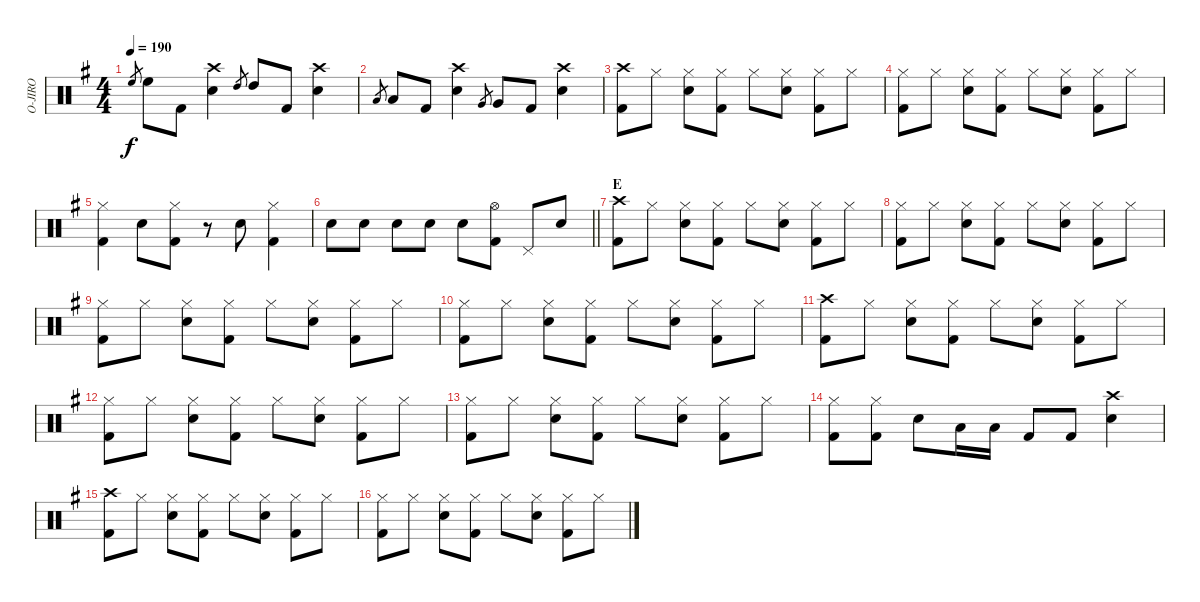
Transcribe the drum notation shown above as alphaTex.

\track ("O-JIRO" "O-JIRO") {instrument percussion}
\staff {score}
\articulation defaults
\ts (4 4)
\tempo 190
\clef neutral
\ks g "High Floor Tom (hit)".8{gr dy f} "High Floor Tom (hit)".8 "Kick (hit) 2".8
("Crash high (hit)" "Snare (hit) 2").4 "High Tom (hit)".8{gr} "High Tom (hit)".8 "Kick (hit) 2".8 ("Crash high (hit)" "Snare (hit) 2").4 |
"Low Tom (hit)".8{gr} "Low Tom (hit)".8 "Kick (hit) 2".8 ("Crash high (hit)" "Snare (hit) 2").4 "Very Low Tom (hit)".8{gr} "Very Low Tom (hit)".8 "Kick (hit) 2".8 ("Crash high (hit)" "Snare (hit) 2").4 |
("Crash high (hit)" "Kick (hit) 2").8 "Hi-Hat (closed)".8 ("Hi-Hat (closed)" "Snare (hit) 2").8 ("Hi-Hat (closed)" "Kick (hit) 2").8 "Hi-Hat (closed)".8 ("Hi-Hat (closed)" "Snare (hit) 2").8 ("Hi-Hat (closed)" "Kick (hit) 2").8 "Hi-Hat (closed)".8 |
("Hi-Hat (closed)" "Kick (hit) 2").8 "Hi-Hat (closed)".8 ("Hi-Hat (closed)" "Snare (hit) 2").8 ("Hi-Hat (closed)" "Kick (hit) 2").8 "Hi-Hat (closed)".8 ("Hi-Hat (closed)" "Snare (hit) 2").8 ("Hi-Hat (closed)" "Kick (hit) 2").8 "Hi-Hat (closed)".8 |
("Hi-Hat (closed)" "Kick (hit) 2").4 "Snare (hit) 2".8 ("Hi-Hat (closed)" "Kick (hit) 2").8 r.8 "Snare (hit) 2".8 ("Hi-Hat (closed)" "Kick (hit) 2").4 |
\barLineRight lightlight "Snare (hit) 2".8 "Snare (hit) 2".8 "Snare (hit) 2".8 "Snare (hit) 2".8 "Snare (hit) 2".8
("Hi-Hat (open)" "Kick (hit) 2").8 "Pedal Hi-Hat (hit)".8 "Snare (hit) 2".8 |
\section ("" "E")
("Crash high (hit)" "Kick (hit) 2").8 "Hi-Hat (closed)".8 ("Hi-Hat (closed)" "Snare (hit) 2").8 ("Hi-Hat (closed)" "Kick (hit) 2").8 "Hi-Hat (closed)".8 ("Hi-Hat (closed)" "Snare (hit) 2").8 ("Hi-Hat (closed)" "Kick (hit) 2").8 "Hi-Hat (closed)".8 |
("Hi-Hat (closed)" "Kick (hit) 2").8 "Hi-Hat (closed)".8 ("Hi-Hat (closed)" "Snare (hit) 2").8 ("Hi-Hat (closed)" "Kick (hit) 2").8 "Hi-Hat (closed)".8 ("Hi-Hat (closed)" "Snare (hit) 2").8 ("Hi-Hat (closed)" "Kick (hit) 2").8 "Hi-Hat (closed)".8 |
("Hi-Hat (closed)" "Kick (hit) 2").8 "Hi-Hat (closed)".8 ("Hi-Hat (closed)" "Snare (hit) 2").8 ("Hi-Hat (closed)" "Kick (hit) 2").8 "Hi-Hat (closed)".8 ("Hi-Hat (closed)" "Snare (hit) 2").8 ("Hi-Hat (closed)" "Kick (hit) 2").8 "Hi-Hat (closed)".8 |
("Hi-Hat (closed)" "Kick (hit) 2").8 "Hi-Hat (closed)".8 ("Hi-Hat (closed)" "Snare (hit) 2").8 ("Hi-Hat (closed)" "Kick (hit) 2").8 "Hi-Hat (closed)".8 ("Hi-Hat (closed)" "Snare (hit) 2").8 ("Hi-Hat (closed)" "Kick (hit) 2").8 "Hi-Hat (closed)".8 |
("Crash high (hit)" "Kick (hit) 2").8 "Hi-Hat (closed)".8 ("Hi-Hat (closed)" "Snare (hit) 2").8 ("Hi-Hat (closed)" "Kick (hit) 2").8 "Hi-Hat (closed)".8 ("Hi-Hat (closed)" "Snare (hit) 2").8 ("Hi-Hat (closed)" "Kick (hit) 2").8 "Hi-Hat (closed)".8 |
("Hi-Hat (closed)" "Kick (hit) 2").8 "Hi-Hat (closed)".8 ("Hi-Hat (closed)" "Snare (hit) 2").8 ("Hi-Hat (closed)" "Kick (hit) 2").8 "Hi-Hat (closed)".8 ("Hi-Hat (closed)" "Snare (hit) 2").8 ("Hi-Hat (closed)" "Kick (hit) 2").8 "Hi-Hat (closed)".8 |
("Hi-Hat (closed)" "Kick (hit) 2").8 "Hi-Hat (closed)".8 ("Hi-Hat (closed)" "Snare (hit) 2").8 ("Hi-Hat (closed)" "Kick (hit) 2").8 "Hi-Hat (closed)".8 ("Hi-Hat (closed)" "Snare (hit) 2").8 ("Hi-Hat (closed)" "Kick (hit) 2").8 "Hi-Hat (closed)".8 |
("Hi-Hat (closed)" "Kick (hit) 2").8 ("Hi-Hat (closed)" "Kick (hit) 2").8 "Snare (hit) 2".8 "Low Tom (hit)".16 "Low Tom (hit)".16 "Kick (hit) 2".8 "Kick (hit) 2".8 ("Crash high (hit)" "Snare (hit) 2").4 |
("Crash high (hit)" "Kick (hit) 2").8 "Hi-Hat (closed)".8 ("Hi-Hat (closed)" "Snare (hit) 2").8 ("Hi-Hat (closed)" "Kick (hit) 2").8 "Hi-Hat (closed)".8 ("Hi-Hat (closed)" "Snare (hit) 2").8 ("Hi-Hat (closed)" "Kick (hit) 2").8 "Hi-Hat (closed)".8 |
("Hi-Hat (closed)" "Kick (hit) 2").8 "Hi-Hat (closed)".8 ("Hi-Hat (closed)" "Snare (hit) 2").8 ("Hi-Hat (closed)" "Kick (hit) 2").8 "Hi-Hat (closed)".8 ("Hi-Hat (closed)" "Snare (hit) 2").8 ("Hi-Hat (closed)" "Kick (hit) 2").8 "Hi-Hat (closed)".8
